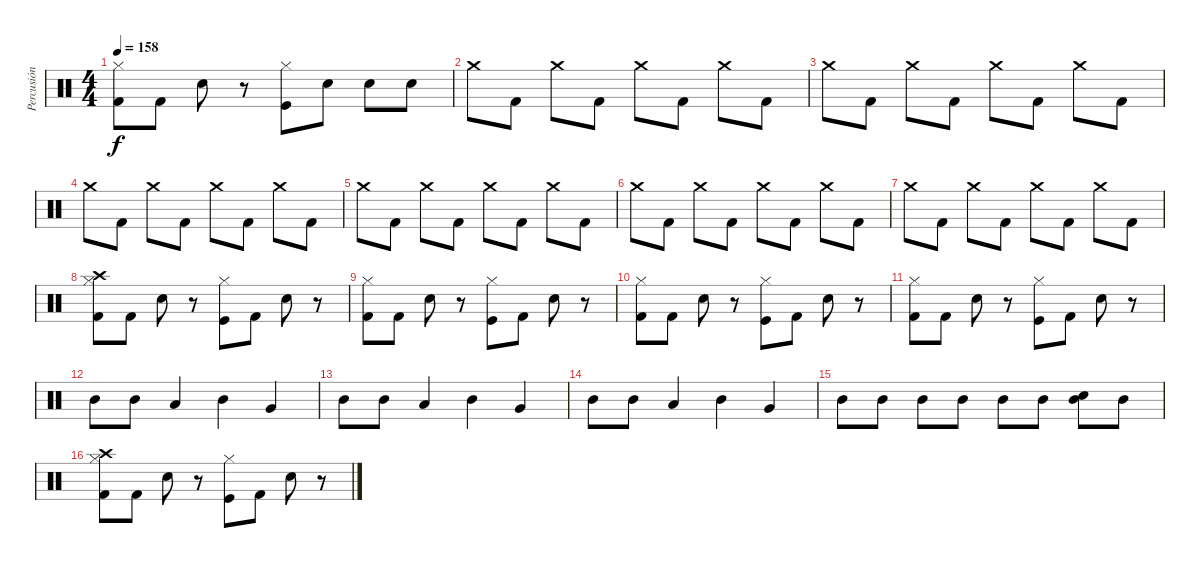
\track ("Percusión" "Percusión") {instrument percussion}
\staff {score}
\articulation defaults
\ts (4 4)
\tempo 158
\clef neutral
\ks c
("Hi-Hat (closed)" "Kick (hit) 2").8{dy f} "Kick (hit) 2".8 "Electric Snare (hit)".8 r.8 ("Hi-Hat (closed)" "Kick (hit)").8 "Electric Snare (hit)".8 "Electric Snare (hit)".8 "Electric Snare (hit)".8 |
"Crash medium (hit)".8 "Kick (hit) 2".8 "Crash medium (hit)".8 "Kick (hit) 2".8 "Crash medium (hit)".8 "Kick (hit) 2".8 "Crash medium (hit)".8 "Kick (hit) 2".8 |
"Crash medium (hit)".8 "Kick (hit) 2".8 "Crash medium (hit)".8 "Kick (hit) 2".8 "Crash medium (hit)".8 "Kick (hit) 2".8 "Crash medium (hit)".8 "Kick (hit) 2".8 |
"Crash medium (hit)".8 "Kick (hit) 2".8 "Crash medium (hit)".8 "Kick (hit) 2".8 "Crash medium (hit)".8 "Kick (hit) 2".8 "Crash medium (hit)".8 "Kick (hit) 2".8 |
"Crash medium (hit)".8 "Kick (hit) 2".8 "Crash medium (hit)".8 "Kick (hit) 2".8 "Crash medium (hit)".8 "Kick (hit) 2".8 "Crash medium (hit)".8 "Kick (hit) 2".8 |
"Crash medium (hit)".8 "Kick (hit) 2".8 "Crash medium (hit)".8 "Kick (hit) 2".8 "Crash medium (hit)".8 "Kick (hit) 2".8 "Crash medium (hit)".8 "Kick (hit) 2".8 |
"Crash medium (hit)".8 "Kick (hit) 2".8 "Crash medium (hit)".8 "Kick (hit) 2".8 "Crash medium (hit)".8 "Kick (hit) 2".8 "Crash medium (hit)".8 "Kick (hit) 2".8 |
("Hi-Hat (closed)" "Kick (hit) 2" "Crash high (hit)").8 "Kick (hit) 2".8 "Electric Snare (hit)".8 r.8 ("Hi-Hat (closed)" "Kick (hit)").8 "Kick (hit) 2".8 "Electric Snare (hit)".8 r.8 |
("Hi-Hat (closed)" "Kick (hit) 2").8 "Kick (hit) 2".8 "Electric Snare (hit)".8 r.8 ("Hi-Hat (closed)" "Kick (hit)").8 "Kick (hit) 2".8 "Electric Snare (hit)".8 r.8 |
("Hi-Hat (closed)" "Kick (hit) 2").8 "Kick (hit) 2".8 "Electric Snare (hit)".8 r.8 ("Hi-Hat (closed)" "Kick (hit)").8 "Kick (hit) 2".8 "Electric Snare (hit)".8 r.8 |
("Hi-Hat (closed)" "Kick (hit) 2").8 "Kick (hit) 2".8 "Electric Snare (hit)".8 r.8 ("Hi-Hat (closed)" "Kick (hit)").8 "Kick (hit) 2".8 "Electric Snare (hit)".8 r.8 |
"Mid Tom (hit)".8 "Mid Tom (hit)".8 "Low Tom (hit)".4 "Mid Tom (hit)".4 "Very Low Tom (hit)".4 |
"Mid Tom (hit)".8 "Mid Tom (hit)".8 "Low Tom (hit)".4 "Mid Tom (hit)".4 "Very Low Tom (hit)".4 |
"Mid Tom (hit)".8 "Mid Tom (hit)".8 "Low Tom (hit)".4 "Mid Tom (hit)".4 "Very Low Tom (hit)".4 |
"Mid Tom (hit)".8 "Mid Tom (hit)".8 "Mid Tom (hit)".8 "Mid Tom (hit)".8 "Mid Tom (hit)".8 "Mid Tom (hit)".8 ("Electric Snare (hit)" "Mid Tom (hit)").8 "Mid Tom (hit)".8 |
("Hi-Hat (closed)" "Kick (hit) 2" "Crash high (hit)").8 "Kick (hit) 2".8 "Electric Snare (hit)".8 r.8 ("Hi-Hat (closed)" "Kick (hit)").8 "Kick (hit) 2".8 "Electric Snare (hit)".8 r.8
